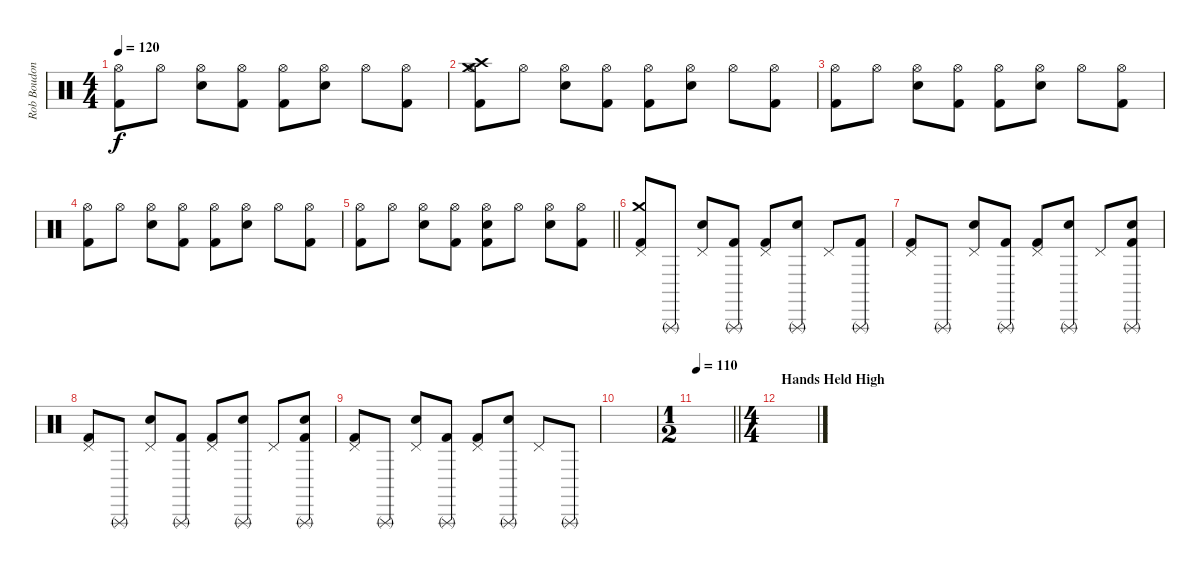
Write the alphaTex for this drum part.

\track ("Rob Boudon [Drums]" "Rob Boudon") {instrument percussion}
\staff {score}
\articulation defaults
\ts (4 4)
\tempo 120
\clef neutral
\ks c
("Hi-Hat (open)" "Kick (hit) 2").8{dy f} "Hi-Hat (open)".8 ("Hi-Hat (open)" "Snare (hit) 2").8 ("Hi-Hat (open)" "Kick (hit) 2").8 ("Hi-Hat (open)" "Kick (hit) 2").8 ("Hi-Hat (open)" "Snare (hit) 2").8 "Hi-Hat (open)".8 ("Hi-Hat (open)" "Kick (hit) 2").8 |
("Crash medium (hit)" "Crash high (hit)" "Hi-Hat (open)" "Kick (hit) 2").8 "Hi-Hat (open)".8 ("Hi-Hat (open)" "Snare (hit) 2").8 ("Hi-Hat (open)" "Kick (hit) 2").8 ("Hi-Hat (open)" "Kick (hit) 2").8 ("Hi-Hat (open)" "Snare (hit) 2").8 "Hi-Hat (open)".8 ("Hi-Hat (open)" "Kick (hit) 2").8 |
("Hi-Hat (open)" "Kick (hit) 2").8 "Hi-Hat (open)".8 ("Hi-Hat (open)" "Snare (hit) 2").8 ("Hi-Hat (open)" "Kick (hit) 2").8 ("Hi-Hat (open)" "Kick (hit) 2").8 ("Hi-Hat (open)" "Snare (hit) 2").8 "Hi-Hat (open)".8 ("Hi-Hat (open)" "Kick (hit) 2").8 |
("Hi-Hat (open)" "Kick (hit) 2").8 "Hi-Hat (open)".8 ("Hi-Hat (open)" "Snare (hit) 2").8 ("Hi-Hat (open)" "Kick (hit) 2").8 ("Hi-Hat (open)" "Kick (hit) 2").8 ("Hi-Hat (open)" "Snare (hit) 2").8 "Hi-Hat (open)".8 ("Hi-Hat (open)" "Kick (hit) 2").8 |
\barLineRight lightlight
("Hi-Hat (open)" "Kick (hit) 2").8 "Hi-Hat (open)".8 ("Hi-Hat (open)" "Snare (hit) 2").8 ("Hi-Hat (open)" "Kick (hit) 2").8 ("Hi-Hat (open)" "Snare (hit) 2" "Kick (hit) 2").8 "Hi-Hat (open)".8 ("Hi-Hat (open)" "Snare (hit) 2").8 ("Hi-Hat (open)" "Kick (hit) 2").8 |
("Crash medium (hit)" "Pedal Hi-Hat (hit)" "Kick (hit) 2").8 "Triangle (rnute)".8 ("Pedal Hi-Hat (hit)" "Snare (hit) 2").8 ("Triangle (rnute)" "Kick (hit) 2").8 ("Pedal Hi-Hat (hit)" "Kick (hit) 2").8 ("Triangle (rnute)" "Snare (hit) 2").8 "Pedal Hi-Hat (hit)".8 ("Triangle (rnute)" "Kick (hit) 2").8 |
("Pedal Hi-Hat (hit)" "Kick (hit) 2").8 "Triangle (rnute)".8 ("Pedal Hi-Hat (hit)" "Snare (hit) 2").8 ("Triangle (rnute)" "Kick (hit) 2").8 ("Pedal Hi-Hat (hit)" "Kick (hit) 2").8 ("Triangle (rnute)" "Snare (hit) 2").8 "Pedal Hi-Hat (hit)".8 ("Triangle (rnute)" "Snare (hit) 2" "Kick (hit) 2").8 |
("Pedal Hi-Hat (hit)" "Kick (hit) 2").8 "Triangle (rnute)".8 ("Pedal Hi-Hat (hit)" "Snare (hit) 2").8 ("Triangle (rnute)" "Kick (hit) 2").8 ("Pedal Hi-Hat (hit)" "Kick (hit) 2").8 ("Triangle (rnute)" "Snare (hit) 2").8 "Pedal Hi-Hat (hit)".8 ("Triangle (rnute)" "Snare (hit) 2" "Kick (hit) 2").8 |
("Pedal Hi-Hat (hit)" "Kick (hit) 2").8 "Triangle (rnute)".8 ("Pedal Hi-Hat (hit)" "Snare (hit) 2").8 ("Triangle (rnute)" "Kick (hit) 2").8 ("Pedal Hi-Hat (hit)" "Kick (hit) 2").8 ("Triangle (rnute)" "Snare (hit) 2").8 "Pedal Hi-Hat (hit)".8 "Triangle (rnute)".8 |
|
\ts (1 2)
\tempo 110
\barLineRight lightlight
|
\ts (4 4)
\section ("" "Hands Held High")
